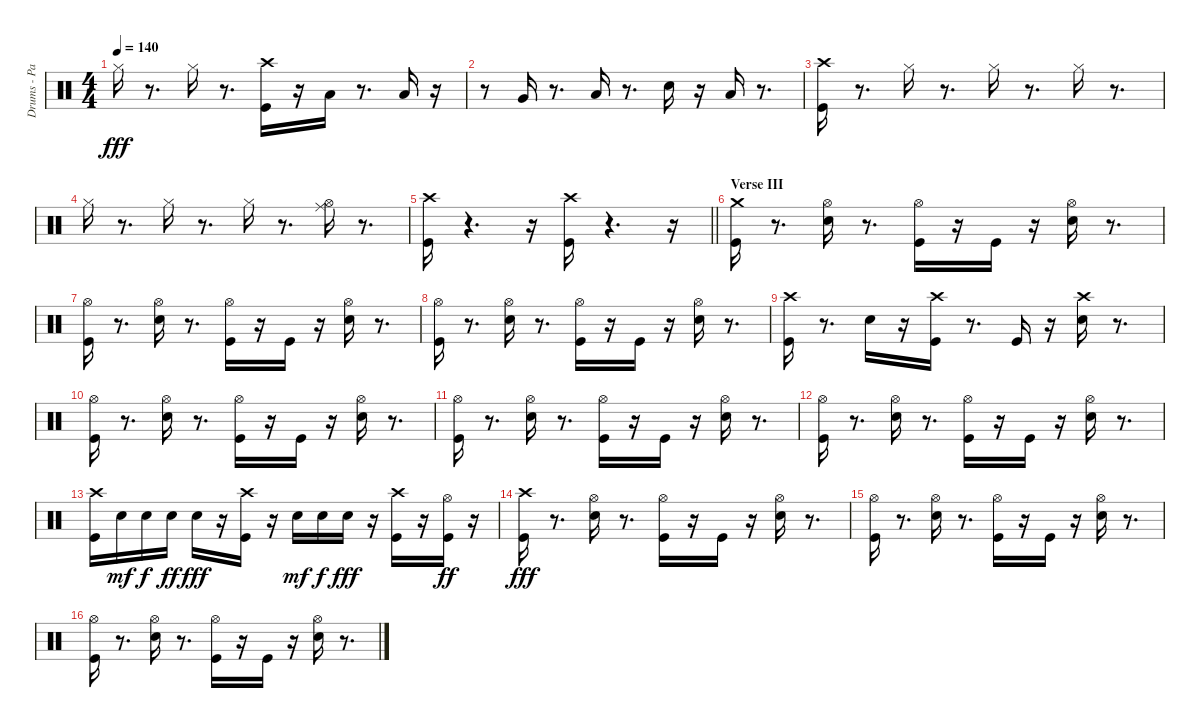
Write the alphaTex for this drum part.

\track ("Drums - Paice" "Drums - Pa") {instrument percussion}
\staff {score}
\articulation defaults
\ts (4 4)
\tempo 140
\clef neutral
\ks c "Hi-Hat (closed)".16{dy fff}
r.8{d} "Hi-Hat (closed)".16 r.8{d} ("Kick (hit)" "Crash high (hit)").16 r.16 "Low Tom (hit)".16 r.8{d} "Low Tom (hit)".16 r.16 |
r.8 "Very Low Tom (hit)".16 r.8{d} "Low Tom (hit)".16 r.8{d} "Snare (hit) 2".16 r.16 "Low Tom (hit)".16 r.8{d} |
("Crash high (hit)" "Kick (hit)").16 r.8{d} "Hi-Hat (closed)".16 r.8{d} "Hi-Hat (closed)".16 r.8{d} "Hi-Hat (closed)".16 r.8{d} |
"Hi-Hat (closed)".16 r.8{d} "Hi-Hat (closed)".16 r.8{d} "Hi-Hat (closed)".16 r.8{d} ("Hi-Hat (open)" "Ride (middle)").16 r.8{d} |
\barLineRight lightlight
("Crash high (hit)" "Kick (hit)").16 r.4{d} r.16 ("Crash high (hit)" "Kick (hit)").16 r.4{d} r.16 |
\section ("" "Verse III")
("Kick (hit)" "Crash medium (hit)").16 r.8{d} ("Snare (hit) 2" "Hi-Hat (open)").16 r.8{d} ("Hi-Hat (open)" "Kick (hit)").16 r.16 "Kick (hit)".16 r.16 ("Snare (hit) 2" "Hi-Hat (open)").16 r.8{d} |
("Kick (hit)" "Hi-Hat (open)").16 r.8{d} ("Hi-Hat (open)" "Snare (hit) 2").16 r.8{d} ("Hi-Hat (open)" "Kick (hit)").16 r.16 "Kick (hit)".16 r.16 ("Snare (hit) 2" "Hi-Hat (open)").16 r.8{d} |
("Hi-Hat (open)" "Kick (hit)").16 r.8{d} ("Snare (hit) 2" "Hi-Hat (open)").16 r.8{d} ("Kick (hit)" "Hi-Hat (open)").16 r.16 "Kick (hit)".16 r.16 ("Snare (hit) 2" "Hi-Hat (open)").16 r.8{d} |
("Kick (hit)" "Crash high (hit)").16 r.8{d} "Snare (hit) 2".16 r.16 ("Crash high (hit)" "Kick (hit)").16 r.8{d} "Kick (hit)".16 r.16 ("Crash high (hit)" "Snare (hit) 2").16 r.8{d} |
("Kick (hit)" "Hi-Hat (open)").16 r.8{d} ("Snare (hit) 2" "Hi-Hat (open)").16 r.8{d} ("Hi-Hat (open)" "Kick (hit)").16 r.16 "Kick (hit)".16 r.16 ("Hi-Hat (open)" "Snare (hit) 2").16 r.8{d} |
("Hi-Hat (open)" "Kick (hit)").16 r.8{d} ("Hi-Hat (open)" "Snare (hit) 2").16 r.8{d} ("Hi-Hat (open)" "Kick (hit)").16 r.16 "Kick (hit)".16 r.16 ("Snare (hit) 2" "Hi-Hat (open)").16 r.8{d} |
("Hi-Hat (open)" "Kick (hit)").16 r.8{d} ("Hi-Hat (open)" "Snare (hit) 2").16 r.8{d} ("Kick (hit)" "Hi-Hat (open)").16 r.16 "Kick (hit)".16 r.16 ("Hi-Hat (open)" "Snare (hit) 2").16 r.8{d} |
("Crash high (hit)" "Kick (hit)").16 "Snare (hit) 2".16{dy mf} "Snare (hit) 2".16{dy f} "Snare (hit) 2".16{dy ff} "Snare (hit) 2".16{dy fff} r.16 ("Crash high (hit)" "Kick (hit)").16 r.16 "Snare (hit) 2".16{dy mf} "Snare (hit) 2".16{dy f} "Snare (hit) 2".16{dy fff} r.16 ("Kick (hit)" "Crash high (hit)").16 r.16 ("Kick (hit)" "Hi-Hat (open)").16{dy ff} r.16 |
("Crash high (hit)" "Kick (hit)").16{dy fff} r.8{d} ("Hi-Hat (open)" "Snare (hit) 2").16 r.8{d} ("Hi-Hat (open)" "Kick (hit)").16 r.16 "Kick (hit)".16 r.16 ("Hi-Hat (open)" "Snare (hit) 2").16 r.8{d} |
("Hi-Hat (open)" "Kick (hit)").16 r.8{d} ("Snare (hit) 2" "Hi-Hat (open)").16 r.8{d} ("Kick (hit)" "Hi-Hat (open)").16 r.16 "Kick (hit)".16 r.16 ("Snare (hit) 2" "Hi-Hat (open)").16 r.8{d} |
("Hi-Hat (open)" "Kick (hit)").16 r.8{d} ("Snare (hit) 2" "Hi-Hat (open)").16 r.8{d} ("Hi-Hat (open)" "Kick (hit)").16 r.16 "Kick (hit)".16 r.16 ("Hi-Hat (open)" "Snare (hit) 2").16 r.8{d}
